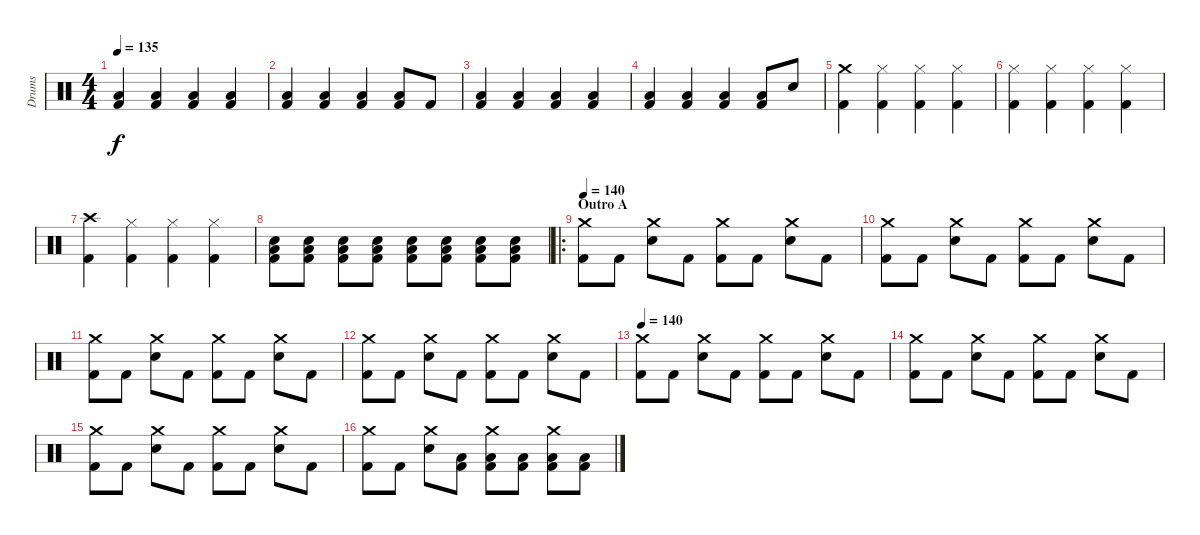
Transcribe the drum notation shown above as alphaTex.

\track ("Drums" "Drums") {instrument percussion}
\staff {score}
\articulation defaults
\ts (4 4)
\tempo 135
\clef neutral
\ks c
("Low Floor Tom (hit)" "Kick (hit) 2").4{dy f} ("Low Floor Tom (hit)" "Kick (hit) 2").4 ("Low Floor Tom (hit)" "Kick (hit) 2").4 ("Low Floor Tom (hit)" "Kick (hit) 2").4 |
("Low Floor Tom (hit)" "Kick (hit) 2").4 ("Low Floor Tom (hit)" "Kick (hit) 2").4 ("Low Floor Tom (hit)" "Kick (hit) 2").4 ("Low Floor Tom (hit)" "Kick (hit) 2").8 "Kick (hit) 2".8 |
("Low Floor Tom (hit)" "Kick (hit) 2").4 ("Low Floor Tom (hit)" "Kick (hit) 2").4 ("Low Floor Tom (hit)" "Kick (hit) 2").4 ("Low Floor Tom (hit)" "Kick (hit) 2").4 |
("Low Floor Tom (hit)" "Kick (hit) 2").4 ("Low Floor Tom (hit)" "Kick (hit) 2").4 ("Low Floor Tom (hit)" "Kick (hit) 2").4 ("Low Floor Tom (hit)" "Kick (hit) 2").8 "Electric Snare (hit)".8 |
("Crash medium (hit)" "Kick (hit) 2").4 ("Hi-Hat (closed)" "Kick (hit) 2").4 ("Hi-Hat (closed)" "Kick (hit) 2").4 ("Hi-Hat (closed)" "Kick (hit) 2").4 |
("Hi-Hat (closed)" "Kick (hit) 2").4 ("Hi-Hat (closed)" "Kick (hit) 2").4 ("Hi-Hat (closed)" "Kick (hit) 2").4 ("Hi-Hat (closed)" "Kick (hit) 2").4 |
("Crash high (hit)" "Kick (hit) 2").4 ("Hi-Hat (closed)" "Kick (hit) 2").4 ("Hi-Hat (closed)" "Kick (hit) 2").4 ("Hi-Hat (closed)" "Kick (hit) 2").4 |
("Low Floor Tom (hit)" "Electric Snare (hit)" "Kick (hit) 2").8 ("Low Floor Tom (hit)" "Electric Snare (hit)" "Kick (hit) 2").8 ("Low Floor Tom (hit)" "Electric Snare (hit)" "Kick (hit) 2").8 ("Low Floor Tom (hit)" "Electric Snare (hit)" "Kick (hit) 2").8 ("Low Floor Tom (hit)" "Electric Snare (hit)" "Kick (hit) 2").8 ("Low Floor Tom (hit)" "Electric Snare (hit)" "Kick (hit) 2").8 ("Low Floor Tom (hit)" "Electric Snare (hit)" "Kick (hit) 2").8 ("Low Floor Tom (hit)" "Electric Snare (hit)" "Kick (hit) 2").8 |
\ro
\section ("" "Outro A")
\tempo 140
("Crash medium (hit)" "Kick (hit) 2").8 "Kick (hit) 2".8 ("Crash medium (hit)" "Electric Snare (hit)").8 "Kick (hit) 2".8 ("Crash medium (hit)" "Kick (hit) 2").8 "Kick (hit) 2".8 ("Crash medium (hit)" "Electric Snare (hit)").8 "Kick (hit) 2".8 |
("Crash medium (hit)" "Kick (hit) 2").8 "Kick (hit) 2".8 ("Crash medium (hit)" "Electric Snare (hit)").8 "Kick (hit) 2".8 ("Crash medium (hit)" "Kick (hit) 2").8 "Kick (hit) 2".8 ("Crash medium (hit)" "Electric Snare (hit)").8 "Kick (hit) 2".8 |
("Crash medium (hit)" "Kick (hit) 2").8 "Kick (hit) 2".8 ("Crash medium (hit)" "Electric Snare (hit)").8 "Kick (hit) 2".8 ("Crash medium (hit)" "Kick (hit) 2").8 "Kick (hit) 2".8 ("Crash medium (hit)" "Electric Snare (hit)").8 "Kick (hit) 2".8 |
("Crash medium (hit)" "Kick (hit) 2").8 "Kick (hit) 2".8 ("Crash medium (hit)" "Electric Snare (hit)").8 "Kick (hit) 2".8 ("Crash medium (hit)" "Kick (hit) 2").8 "Kick (hit) 2".8 ("Crash medium (hit)" "Electric Snare (hit)").8 "Kick (hit) 2".8 |
\tempo 140
("Crash medium (hit)" "Kick (hit) 2").8 "Kick (hit) 2".8 ("Crash medium (hit)" "Electric Snare (hit)").8 "Kick (hit) 2".8 ("Crash medium (hit)" "Kick (hit) 2").8 "Kick (hit) 2".8 ("Crash medium (hit)" "Electric Snare (hit)").8 "Kick (hit) 2".8 |
("Crash medium (hit)" "Kick (hit) 2").8 "Kick (hit) 2".8 ("Crash medium (hit)" "Electric Snare (hit)").8 "Kick (hit) 2".8 ("Crash medium (hit)" "Kick (hit) 2").8 "Kick (hit) 2".8 ("Crash medium (hit)" "Electric Snare (hit)").8 "Kick (hit) 2".8 |
("Crash medium (hit)" "Kick (hit) 2").8 "Kick (hit) 2".8 ("Crash medium (hit)" "Electric Snare (hit)").8 "Kick (hit) 2".8 ("Crash medium (hit)" "Kick (hit) 2").8 "Kick (hit) 2".8 ("Crash medium (hit)" "Electric Snare (hit)").8 "Kick (hit) 2".8 |
("Crash medium (hit)" "Kick (hit) 2").8 "Kick (hit) 2".8 ("Crash medium (hit)" "Electric Snare (hit)").8 ("Low Floor Tom (hit)" "Kick (hit) 2").8 ("Crash medium (hit)" "Low Floor Tom (hit)" "Kick (hit) 2").8 ("Low Floor Tom (hit)" "Kick (hit) 2").8 ("Crash medium (hit)" "Low Floor Tom (hit)" "Kick (hit) 2").8 ("Low Floor Tom (hit)" "Kick (hit) 2").8
